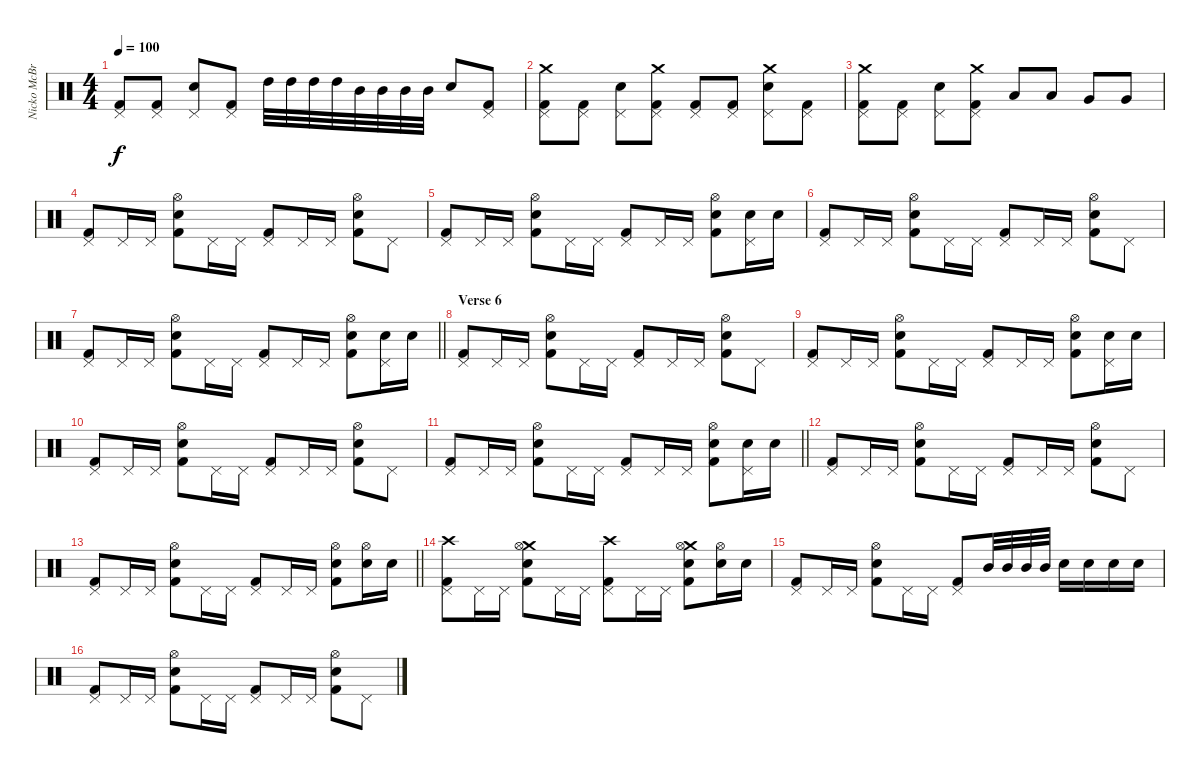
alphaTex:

\track ("Nicko McBrain" "Nicko McBr") {instrument percussion}
\staff {score}
\articulation defaults
\ts (4 4)
\tempo 100
\clef neutral
\ks c
("Pedal Hi-Hat (hit)" "Kick (hit) 2").8{dy f} ("Pedal Hi-Hat (hit)" "Kick (hit) 2").8 ("Electric Snare (hit)" "Pedal Hi-Hat (hit)").8 ("Pedal Hi-Hat (hit)" "Kick (hit) 2").8 "High Tom (hit)".32 "High Tom (hit)".32 "High Tom (hit)".32 "High Tom (hit)".32 "Mid Tom (hit)".32 "Mid Tom (hit)".32 "Mid Tom (hit)".32 "Mid Tom (hit)".32 "Electric Snare (hit)".8 ("Pedal Hi-Hat (hit)" "Kick (hit) 2").8 |
("Pedal Hi-Hat (hit)" "Crash medium (hit)" "Kick (hit) 2").8 ("Pedal Hi-Hat (hit)" "Kick (hit) 2").8 ("Electric Snare (hit)" "Pedal Hi-Hat (hit)").8 ("Pedal Hi-Hat (hit)" "Crash medium (hit)" "Kick (hit) 2").8 ("Pedal Hi-Hat (hit)" "Kick (hit) 2").8 ("Pedal Hi-Hat (hit)" "Kick (hit) 2").8 ("Electric Snare (hit)" "Pedal Hi-Hat (hit)" "Crash medium (hit)").8 ("Pedal Hi-Hat (hit)" "Kick (hit) 2").8 |
("Pedal Hi-Hat (hit)" "Crash medium (hit)" "Kick (hit) 2").8 ("Pedal Hi-Hat (hit)" "Kick (hit) 2").8 ("Electric Snare (hit)" "Pedal Hi-Hat (hit)").8 ("Pedal Hi-Hat (hit)" "Crash medium (hit)" "Kick (hit) 2").8 "Low Tom (hit)".8 "Low Tom (hit)".8 "Very Low Tom (hit)".8 "Very Low Tom (hit)".8 |
("Pedal Hi-Hat (hit)" "Kick (hit) 2").8 "Pedal Hi-Hat (hit)".16 "Pedal Hi-Hat (hit)".16 ("Electric Snare (hit)" "Hi-Hat (open)" "Kick (hit) 2").8 "Pedal Hi-Hat (hit)".16 "Pedal Hi-Hat (hit)".16 ("Pedal Hi-Hat (hit)" "Kick (hit) 2").8 "Pedal Hi-Hat (hit)".16 "Pedal Hi-Hat (hit)".16 ("Electric Snare (hit)" "Hi-Hat (open)" "Kick (hit) 2").8 "Pedal Hi-Hat (hit)".8 |
("Pedal Hi-Hat (hit)" "Kick (hit) 2").8 "Pedal Hi-Hat (hit)".16 "Pedal Hi-Hat (hit)".16 ("Electric Snare (hit)" "Hi-Hat (open)" "Kick (hit) 2").8 "Pedal Hi-Hat (hit)".16 "Pedal Hi-Hat (hit)".16 ("Pedal Hi-Hat (hit)" "Kick (hit) 2").8 "Pedal Hi-Hat (hit)".16 "Pedal Hi-Hat (hit)".16 ("Electric Snare (hit)" "Hi-Hat (open)" "Kick (hit) 2").8 ("Pedal Hi-Hat (hit)" "Electric Snare (hit)").16 "Electric Snare (hit)".16 |
("Pedal Hi-Hat (hit)" "Kick (hit) 2").8 "Pedal Hi-Hat (hit)".16 "Pedal Hi-Hat (hit)".16 ("Electric Snare (hit)" "Hi-Hat (open)" "Kick (hit) 2").8 "Pedal Hi-Hat (hit)".16 "Pedal Hi-Hat (hit)".16 ("Pedal Hi-Hat (hit)" "Kick (hit) 2").8 "Pedal Hi-Hat (hit)".16 "Pedal Hi-Hat (hit)".16 ("Electric Snare (hit)" "Hi-Hat (open)" "Kick (hit) 2").8 "Pedal Hi-Hat (hit)".8 |
\barLineRight lightlight
("Pedal Hi-Hat (hit)" "Kick (hit) 2").8 "Pedal Hi-Hat (hit)".16 "Pedal Hi-Hat (hit)".16 ("Electric Snare (hit)" "Hi-Hat (open)" "Kick (hit) 2").8 "Pedal Hi-Hat (hit)".16 "Pedal Hi-Hat (hit)".16 ("Pedal Hi-Hat (hit)" "Kick (hit) 2").8 "Pedal Hi-Hat (hit)".16 "Pedal Hi-Hat (hit)".16 ("Electric Snare (hit)" "Hi-Hat (open)" "Kick (hit) 2").8 ("Pedal Hi-Hat (hit)" "Electric Snare (hit)").16 "Electric Snare (hit)".16 |
\section ("" "Verse 6")
("Pedal Hi-Hat (hit)" "Kick (hit) 2").8 "Pedal Hi-Hat (hit)".16 "Pedal Hi-Hat (hit)".16 ("Electric Snare (hit)" "Hi-Hat (open)" "Kick (hit) 2").8 "Pedal Hi-Hat (hit)".16 "Pedal Hi-Hat (hit)".16 ("Pedal Hi-Hat (hit)" "Kick (hit) 2").8 "Pedal Hi-Hat (hit)".16 "Pedal Hi-Hat (hit)".16 ("Electric Snare (hit)" "Hi-Hat (open)" "Kick (hit) 2").8 "Pedal Hi-Hat (hit)".8 |
("Pedal Hi-Hat (hit)" "Kick (hit) 2").8 "Pedal Hi-Hat (hit)".16 "Pedal Hi-Hat (hit)".16 ("Electric Snare (hit)" "Hi-Hat (open)" "Kick (hit) 2").8 "Pedal Hi-Hat (hit)".16 "Pedal Hi-Hat (hit)".16 ("Pedal Hi-Hat (hit)" "Kick (hit) 2").8 "Pedal Hi-Hat (hit)".16 "Pedal Hi-Hat (hit)".16 ("Electric Snare (hit)" "Hi-Hat (open)" "Kick (hit) 2").8 ("Pedal Hi-Hat (hit)" "Electric Snare (hit)").16 "Electric Snare (hit)".16 |
("Pedal Hi-Hat (hit)" "Kick (hit) 2").8 "Pedal Hi-Hat (hit)".16 "Pedal Hi-Hat (hit)".16 ("Electric Snare (hit)" "Hi-Hat (open)" "Kick (hit) 2").8 "Pedal Hi-Hat (hit)".16 "Pedal Hi-Hat (hit)".16 ("Pedal Hi-Hat (hit)" "Kick (hit) 2").8 "Pedal Hi-Hat (hit)".16 "Pedal Hi-Hat (hit)".16 ("Electric Snare (hit)" "Hi-Hat (open)" "Kick (hit) 2").8 "Pedal Hi-Hat (hit)".8 |
\barLineRight lightlight
("Pedal Hi-Hat (hit)" "Kick (hit) 2").8 "Pedal Hi-Hat (hit)".16 "Pedal Hi-Hat (hit)".16 ("Electric Snare (hit)" "Hi-Hat (open)" "Kick (hit) 2").8 "Pedal Hi-Hat (hit)".16 "Pedal Hi-Hat (hit)".16 ("Pedal Hi-Hat (hit)" "Kick (hit) 2").8 "Pedal Hi-Hat (hit)".16 "Pedal Hi-Hat (hit)".16 ("Electric Snare (hit)" "Hi-Hat (open)" "Kick (hit) 2").8 ("Pedal Hi-Hat (hit)" "Electric Snare (hit)").16 "Electric Snare (hit)".16 |
("Pedal Hi-Hat (hit)" "Kick (hit) 2").8 "Pedal Hi-Hat (hit)".16 "Pedal Hi-Hat (hit)".16 ("Electric Snare (hit)" "Hi-Hat (open)" "Kick (hit) 2").8 "Pedal Hi-Hat (hit)".16 "Pedal Hi-Hat (hit)".16 ("Pedal Hi-Hat (hit)" "Kick (hit) 2").8 "Pedal Hi-Hat (hit)".16 "Pedal Hi-Hat (hit)".16 ("Electric Snare (hit)" "Hi-Hat (open)" "Kick (hit) 2").8 "Pedal Hi-Hat (hit)".8 |
\barLineRight lightlight
("Pedal Hi-Hat (hit)" "Kick (hit) 2").8 "Pedal Hi-Hat (hit)".16 "Pedal Hi-Hat (hit)".16 ("Electric Snare (hit)" "Hi-Hat (open)" "Kick (hit) 2").8 "Pedal Hi-Hat (hit)".16 "Pedal Hi-Hat (hit)".16 ("Pedal Hi-Hat (hit)" "Kick (hit) 2").8 "Pedal Hi-Hat (hit)".16 "Pedal Hi-Hat (hit)".16 ("Electric Snare (hit)" "Hi-Hat (open)" "Kick (hit) 2").8 ("Hi-Hat (open)" "Electric Snare (hit)").16 "Electric Snare (hit)".16 |
("Crash high (hit)" "Pedal Hi-Hat (hit)" "Kick (hit) 2").8 "Pedal Hi-Hat (hit)".16 "Pedal Hi-Hat (hit)".16 ("Crash medium (hit)" "Electric Snare (hit)" "Hi-Hat (open)" "Kick (hit) 2").8 "Pedal Hi-Hat (hit)".16 "Pedal Hi-Hat (hit)".16 ("Crash high (hit)" "Pedal Hi-Hat (hit)" "Kick (hit) 2").8 "Pedal Hi-Hat (hit)".16 "Pedal Hi-Hat (hit)".16 ("Crash medium (hit)" "Electric Snare (hit)" "Hi-Hat (open)" "Kick (hit) 2").8 ("Hi-Hat (open)" "Electric Snare (hit)").16 "Electric Snare (hit)".16 |
("Pedal Hi-Hat (hit)" "Kick (hit) 2").8 "Pedal Hi-Hat (hit)".16 "Pedal Hi-Hat (hit)".16 ("Electric Snare (hit)" "Hi-Hat (open)" "Kick (hit) 2").8 "Pedal Hi-Hat (hit)".16 "Pedal Hi-Hat (hit)".16 ("Pedal Hi-Hat (hit)" "Kick (hit) 2").8 "Mid Tom (hit)".32 "Mid Tom (hit)".32 "Mid Tom (hit)".32 "Mid Tom (hit)".32 "Electric Snare (hit)".16 "Electric Snare (hit)".16 "Electric Snare (hit)".16 "Electric Snare (hit)".16 |
("Pedal Hi-Hat (hit)" "Kick (hit) 2").8 "Pedal Hi-Hat (hit)".16 "Pedal Hi-Hat (hit)".16 ("Electric Snare (hit)" "Hi-Hat (open)" "Kick (hit) 2").8 "Pedal Hi-Hat (hit)".16 "Pedal Hi-Hat (hit)".16 ("Pedal Hi-Hat (hit)" "Kick (hit) 2").8 "Pedal Hi-Hat (hit)".16 "Pedal Hi-Hat (hit)".16 ("Electric Snare (hit)" "Hi-Hat (open)" "Kick (hit) 2").8 "Pedal Hi-Hat (hit)".8
